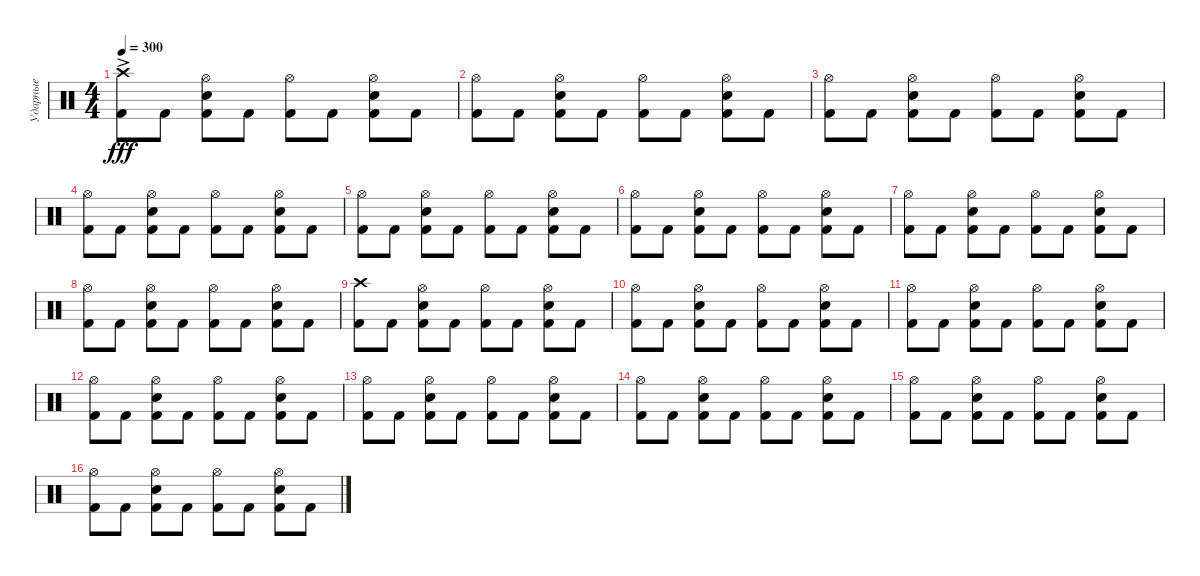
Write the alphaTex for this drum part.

\track ("Ударные" "Ударные") {instrument percussion}
\staff {score}
\articulation defaults
\ts (4 4)
\tempo 300
\clef neutral
\ks c
("Kick (hit) 2" "Crash high (hit)"{ac}).8{dy fff} "Kick (hit) 2".8 ("Kick (hit) 2" "Snare (hit) 2" "Hi-Hat (open)").8 "Kick (hit) 2".8 ("Kick (hit) 2" "Hi-Hat (open)").8 "Kick (hit) 2".8 ("Kick (hit) 2" "Snare (hit) 2" "Hi-Hat (open)").8 "Kick (hit) 2".8 |
("Kick (hit) 2" "Hi-Hat (open)").8 "Kick (hit) 2".8 ("Kick (hit) 2" "Snare (hit) 2" "Hi-Hat (open)").8 "Kick (hit) 2".8 ("Kick (hit) 2" "Hi-Hat (open)").8 "Kick (hit) 2".8 ("Kick (hit) 2" "Snare (hit) 2" "Hi-Hat (open)").8 "Kick (hit) 2".8 |
("Kick (hit) 2" "Hi-Hat (open)").8 "Kick (hit) 2".8 ("Kick (hit) 2" "Snare (hit) 2" "Hi-Hat (open)").8 "Kick (hit) 2".8 ("Kick (hit) 2" "Hi-Hat (open)").8 "Kick (hit) 2".8 ("Kick (hit) 2" "Snare (hit) 2" "Hi-Hat (open)").8 "Kick (hit) 2".8 |
("Kick (hit) 2" "Hi-Hat (open)").8 "Kick (hit) 2".8 ("Kick (hit) 2" "Snare (hit) 2" "Hi-Hat (open)").8 "Kick (hit) 2".8 ("Kick (hit) 2" "Hi-Hat (open)").8 "Kick (hit) 2".8 ("Kick (hit) 2" "Snare (hit) 2" "Hi-Hat (open)").8 "Kick (hit) 2".8 |
("Kick (hit) 2" "Hi-Hat (open)").8 "Kick (hit) 2".8 ("Kick (hit) 2" "Snare (hit) 2" "Hi-Hat (open)").8 "Kick (hit) 2".8 ("Kick (hit) 2" "Hi-Hat (open)").8 "Kick (hit) 2".8 ("Kick (hit) 2" "Snare (hit) 2" "Hi-Hat (open)").8 "Kick (hit) 2".8 |
("Kick (hit) 2" "Hi-Hat (open)").8 "Kick (hit) 2".8 ("Kick (hit) 2" "Snare (hit) 2" "Hi-Hat (open)").8 "Kick (hit) 2".8 ("Kick (hit) 2" "Hi-Hat (open)").8 "Kick (hit) 2".8 ("Kick (hit) 2" "Snare (hit) 2" "Hi-Hat (open)").8 "Kick (hit) 2".8 |
("Kick (hit) 2" "Hi-Hat (open)").8 "Kick (hit) 2".8 ("Kick (hit) 2" "Snare (hit) 2" "Hi-Hat (open)").8 "Kick (hit) 2".8 ("Kick (hit) 2" "Hi-Hat (open)").8 "Kick (hit) 2".8 ("Kick (hit) 2" "Snare (hit) 2" "Hi-Hat (open)").8 "Kick (hit) 2".8 |
("Kick (hit) 2" "Hi-Hat (open)").8 "Kick (hit) 2".8 ("Kick (hit) 2" "Snare (hit) 2" "Hi-Hat (open)").8 "Kick (hit) 2".8 ("Kick (hit) 2" "Hi-Hat (open)").8 "Kick (hit) 2".8 ("Kick (hit) 2" "Snare (hit) 2" "Hi-Hat (open)").8 "Kick (hit) 2".8 |
("Kick (hit) 2" "Crash high (hit)").8 "Kick (hit) 2".8 ("Kick (hit) 2" "Snare (hit) 2" "Hi-Hat (open)").8 "Kick (hit) 2".8 ("Kick (hit) 2" "Hi-Hat (open)").8 "Kick (hit) 2".8 ("Kick (hit) 2" "Snare (hit) 2" "Hi-Hat (open)").8 "Kick (hit) 2".8 |
("Kick (hit) 2" "Hi-Hat (open)").8 "Kick (hit) 2".8 ("Kick (hit) 2" "Snare (hit) 2" "Hi-Hat (open)").8 "Kick (hit) 2".8 ("Kick (hit) 2" "Hi-Hat (open)").8 "Kick (hit) 2".8 ("Kick (hit) 2" "Snare (hit) 2" "Hi-Hat (open)").8 "Kick (hit) 2".8 |
("Kick (hit) 2" "Hi-Hat (open)").8 "Kick (hit) 2".8 ("Kick (hit) 2" "Snare (hit) 2" "Hi-Hat (open)").8 "Kick (hit) 2".8 ("Kick (hit) 2" "Hi-Hat (open)").8 "Kick (hit) 2".8 ("Kick (hit) 2" "Snare (hit) 2" "Hi-Hat (open)").8 "Kick (hit) 2".8 |
("Kick (hit) 2" "Hi-Hat (open)").8 "Kick (hit) 2".8 ("Kick (hit) 2" "Snare (hit) 2" "Hi-Hat (open)").8 "Kick (hit) 2".8 ("Kick (hit) 2" "Hi-Hat (open)").8 "Kick (hit) 2".8 ("Kick (hit) 2" "Snare (hit) 2" "Hi-Hat (open)").8 "Kick (hit) 2".8 |
("Kick (hit) 2" "Hi-Hat (open)").8 "Kick (hit) 2".8 ("Kick (hit) 2" "Snare (hit) 2" "Hi-Hat (open)").8 "Kick (hit) 2".8 ("Kick (hit) 2" "Hi-Hat (open)").8 "Kick (hit) 2".8 ("Kick (hit) 2" "Snare (hit) 2" "Hi-Hat (open)").8 "Kick (hit) 2".8 |
("Kick (hit) 2" "Hi-Hat (open)").8 "Kick (hit) 2".8 ("Kick (hit) 2" "Snare (hit) 2" "Hi-Hat (open)").8 "Kick (hit) 2".8 ("Kick (hit) 2" "Hi-Hat (open)").8 "Kick (hit) 2".8 ("Kick (hit) 2" "Snare (hit) 2" "Hi-Hat (open)").8 "Kick (hit) 2".8 |
("Kick (hit) 2" "Hi-Hat (open)").8 "Kick (hit) 2".8 ("Kick (hit) 2" "Snare (hit) 2" "Hi-Hat (open)").8 "Kick (hit) 2".8 ("Kick (hit) 2" "Hi-Hat (open)").8 "Kick (hit) 2".8 ("Kick (hit) 2" "Snare (hit) 2" "Hi-Hat (open)").8 "Kick (hit) 2".8 |
("Kick (hit) 2" "Hi-Hat (open)").8 "Kick (hit) 2".8 ("Kick (hit) 2" "Snare (hit) 2" "Hi-Hat (open)").8 "Kick (hit) 2".8 ("Kick (hit) 2" "Hi-Hat (open)").8 "Kick (hit) 2".8 ("Kick (hit) 2" "Snare (hit) 2" "Hi-Hat (open)").8 "Kick (hit) 2".8
